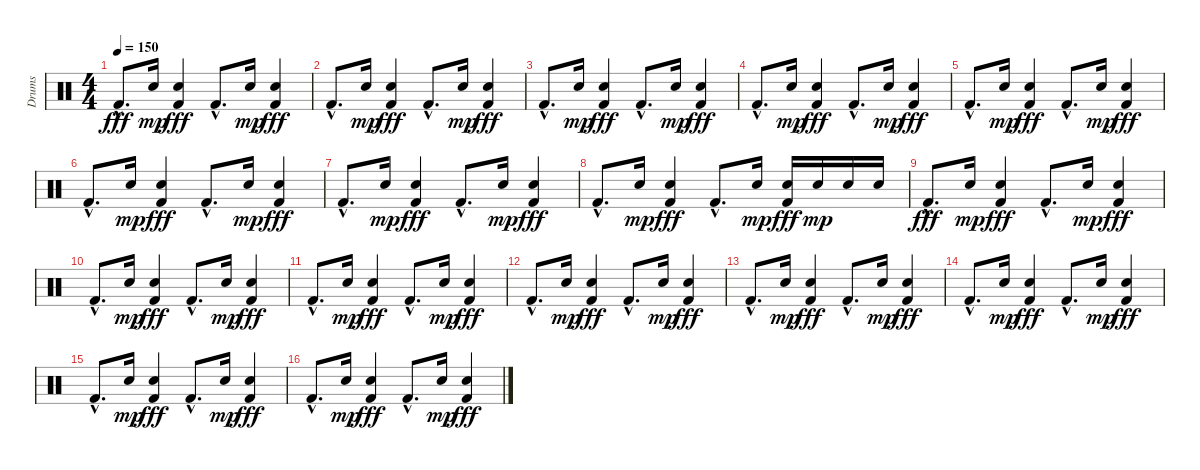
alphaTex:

\track ("Drums" "Drums") {instrument percussion}
\staff {score}
\articulation defaults
\ts (4 4)
\tempo 150
\clef neutral
\ks c "Kick (hit) 2"{hac}.8{d dy fff} "Snare (hit) 2".16{dy mp}
("Snare (hit) 2" "Kick (hit) 2").4{dy fff} "Kick (hit) 2"{hac}.8{d} "Snare (hit) 2".16{dy mp} ("Snare (hit) 2" "Kick (hit) 2").4{dy fff} |
"Kick (hit) 2"{hac}.8{d} "Snare (hit) 2".16{dy mp} ("Snare (hit) 2" "Kick (hit) 2").4{dy fff} "Kick (hit) 2"{hac}.8{d} "Snare (hit) 2".16{dy mp} ("Snare (hit) 2" "Kick (hit) 2").4{dy fff} |
"Kick (hit) 2"{hac}.8{d} "Snare (hit) 2".16{dy mp} ("Snare (hit) 2" "Kick (hit) 2").4{dy fff} "Kick (hit) 2"{hac}.8{d} "Snare (hit) 2".16{dy mp} ("Snare (hit) 2" "Kick (hit) 2").4{dy fff} |
"Kick (hit) 2"{hac}.8{d} "Snare (hit) 2".16{dy mp} ("Snare (hit) 2" "Kick (hit) 2").4{dy fff} "Kick (hit) 2"{hac}.8{d} "Snare (hit) 2".16{dy mp} ("Snare (hit) 2" "Kick (hit) 2").4{dy fff} |
"Kick (hit) 2"{hac}.8{d} "Snare (hit) 2".16{dy mp} ("Snare (hit) 2" "Kick (hit) 2").4{dy fff} "Kick (hit) 2"{hac}.8{d} "Snare (hit) 2".16{dy mp} ("Snare (hit) 2" "Kick (hit) 2").4{dy fff} |
"Kick (hit) 2"{hac}.8{d} "Snare (hit) 2".16{dy mp} ("Snare (hit) 2" "Kick (hit) 2").4{dy fff} "Kick (hit) 2"{hac}.8{d} "Snare (hit) 2".16{dy mp} ("Snare (hit) 2" "Kick (hit) 2").4{dy fff} |
"Kick (hit) 2"{hac}.8{d} "Snare (hit) 2".16{dy mp} ("Snare (hit) 2" "Kick (hit) 2").4{dy fff} "Kick (hit) 2"{hac}.8{d} "Snare (hit) 2".16{dy mp} ("Snare (hit) 2" "Kick (hit) 2").4{dy fff} |
"Kick (hit) 2"{hac}.8{d} "Snare (hit) 2".16{dy mp} ("Snare (hit) 2" "Kick (hit) 2").4{dy fff} "Kick (hit) 2"{hac}.8{d} "Snare (hit) 2".16{dy mp} ("Snare (hit) 2" "Kick (hit) 2").16{dy fff} "Snare (hit) 2".16{dy mp} "Snare (hit) 2".16 "Snare (hit) 2".16 |
"Kick (hit) 2"{hac}.8{d dy fff} "Snare (hit) 2".16{dy mp} ("Snare (hit) 2" "Kick (hit) 2").4{dy fff} "Kick (hit) 2"{hac}.8{d} "Snare (hit) 2".16{dy mp} ("Snare (hit) 2" "Kick (hit) 2").4{dy fff} |
"Kick (hit) 2"{hac}.8{d} "Snare (hit) 2".16{dy mp} ("Snare (hit) 2" "Kick (hit) 2").4{dy fff} "Kick (hit) 2"{hac}.8{d} "Snare (hit) 2".16{dy mp} ("Snare (hit) 2" "Kick (hit) 2").4{dy fff} |
"Kick (hit) 2"{hac}.8{d} "Snare (hit) 2".16{dy mp} ("Snare (hit) 2" "Kick (hit) 2").4{dy fff} "Kick (hit) 2"{hac}.8{d} "Snare (hit) 2".16{dy mp} ("Snare (hit) 2" "Kick (hit) 2").4{dy fff} |
"Kick (hit) 2"{hac}.8{d} "Snare (hit) 2".16{dy mp} ("Snare (hit) 2" "Kick (hit) 2").4{dy fff} "Kick (hit) 2"{hac}.8{d} "Snare (hit) 2".16{dy mp} ("Snare (hit) 2" "Kick (hit) 2").4{dy fff} |
"Kick (hit) 2"{hac}.8{d} "Snare (hit) 2".16{dy mp} ("Snare (hit) 2" "Kick (hit) 2").4{dy fff} "Kick (hit) 2"{hac}.8{d} "Snare (hit) 2".16{dy mp} ("Snare (hit) 2" "Kick (hit) 2").4{dy fff} |
"Kick (hit) 2"{hac}.8{d} "Snare (hit) 2".16{dy mp} ("Snare (hit) 2" "Kick (hit) 2").4{dy fff} "Kick (hit) 2"{hac}.8{d} "Snare (hit) 2".16{dy mp} ("Snare (hit) 2" "Kick (hit) 2").4{dy fff} |
"Kick (hit) 2"{hac}.8{d} "Snare (hit) 2".16{dy mp} ("Snare (hit) 2" "Kick (hit) 2").4{dy fff} "Kick (hit) 2"{hac}.8{d} "Snare (hit) 2".16{dy mp} ("Snare (hit) 2" "Kick (hit) 2").4{dy fff} |
"Kick (hit) 2"{hac}.8{d} "Snare (hit) 2".16{dy mp} ("Snare (hit) 2" "Kick (hit) 2").4{dy fff} "Kick (hit) 2"{hac}.8{d} "Snare (hit) 2".16{dy mp} ("Snare (hit) 2" "Kick (hit) 2").4{dy fff}
